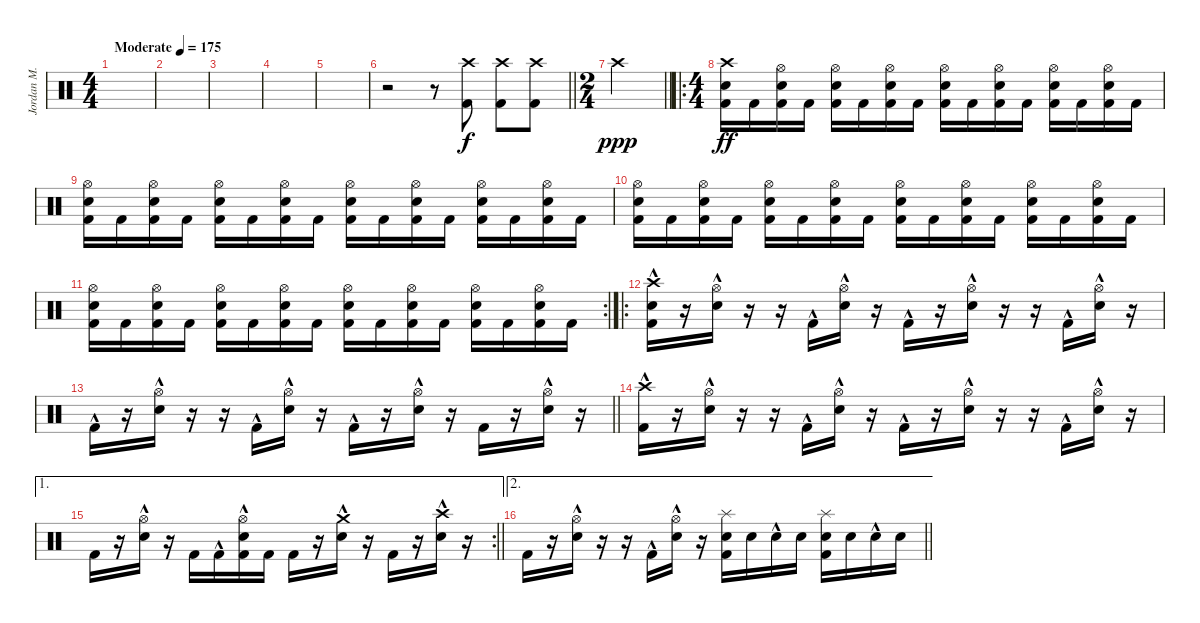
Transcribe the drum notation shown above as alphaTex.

\track ("Jordan M." "Jordan M.") {instrument percussion}
\staff {score}
\articulation defaults
\ts (4 4)
\tempo (175 "Moderate")
\clef neutral
\ks c
|
|
|
|
|
\barLineRight lightlight
r.2 r.8 ("Crash high (hit)" "Kick (hit) 2").8 ("Crash high (hit)" "Kick (hit) 2").8 ("Crash high (hit)" "Kick (hit) 2").8 |
\ts (2 4)
\barLineRight lightlight "Crash high (hit)".2{dy ppp}
|
\ro
\ts (4 4)
("Crash high (hit)" "Electric Snare (hit)" "Kick (hit) 2").16{dy ff} "Kick (hit) 2".16 ("Hi-Hat (open)" "Electric Snare (hit)" "Kick (hit) 2").16 "Kick (hit) 2".16 ("Hi-Hat (open)" "Electric Snare (hit)" "Kick (hit) 2").16 "Kick (hit) 2".16 ("Hi-Hat (open)" "Electric Snare (hit)" "Kick (hit) 2").16 "Kick (hit) 2".16 ("Hi-Hat (open)" "Electric Snare (hit)" "Kick (hit) 2").16 "Kick (hit) 2".16 ("Hi-Hat (open)" "Electric Snare (hit)" "Kick (hit) 2").16 "Kick (hit) 2".16 ("Hi-Hat (open)" "Electric Snare (hit)" "Kick (hit) 2").16 "Kick (hit) 2".16 ("Hi-Hat (open)" "Electric Snare (hit)" "Kick (hit) 2").16 "Kick (hit) 2".16 |
("Hi-Hat (open)" "Electric Snare (hit)" "Kick (hit) 2").16 "Kick (hit) 2".16 ("Hi-Hat (open)" "Electric Snare (hit)" "Kick (hit) 2").16 "Kick (hit) 2".16 ("Hi-Hat (open)" "Electric Snare (hit)" "Kick (hit) 2").16 "Kick (hit) 2".16 ("Hi-Hat (open)" "Electric Snare (hit)" "Kick (hit) 2").16 "Kick (hit) 2".16 ("Hi-Hat (open)" "Electric Snare (hit)" "Kick (hit) 2").16 "Kick (hit) 2".16 ("Hi-Hat (open)" "Electric Snare (hit)" "Kick (hit) 2").16 "Kick (hit) 2".16 ("Hi-Hat (open)" "Electric Snare (hit)" "Kick (hit) 2").16 "Kick (hit) 2".16 ("Hi-Hat (open)" "Electric Snare (hit)" "Kick (hit) 2").16 "Kick (hit) 2".16 |
("Hi-Hat (open)" "Electric Snare (hit)" "Kick (hit) 2").16 "Kick (hit) 2".16 ("Hi-Hat (open)" "Electric Snare (hit)" "Kick (hit) 2").16 "Kick (hit) 2".16 ("Hi-Hat (open)" "Electric Snare (hit)" "Kick (hit) 2").16 "Kick (hit) 2".16 ("Hi-Hat (open)" "Electric Snare (hit)" "Kick (hit) 2").16 "Kick (hit) 2".16 ("Hi-Hat (open)" "Electric Snare (hit)" "Kick (hit) 2").16 "Kick (hit) 2".16 ("Hi-Hat (open)" "Electric Snare (hit)" "Kick (hit) 2").16 "Kick (hit) 2".16 ("Hi-Hat (open)" "Electric Snare (hit)" "Kick (hit) 2").16 "Kick (hit) 2".16 ("Hi-Hat (open)" "Electric Snare (hit)" "Kick (hit) 2").16 "Kick (hit) 2".16 |
\rc 2
("Hi-Hat (open)" "Electric Snare (hit)" "Kick (hit) 2").16 "Kick (hit) 2".16 ("Hi-Hat (open)" "Electric Snare (hit)" "Kick (hit) 2").16 "Kick (hit) 2".16 ("Hi-Hat (open)" "Electric Snare (hit)" "Kick (hit) 2").16 "Kick (hit) 2".16 ("Hi-Hat (open)" "Electric Snare (hit)" "Kick (hit) 2").16 "Kick (hit) 2".16 ("Hi-Hat (open)" "Electric Snare (hit)" "Kick (hit) 2").16 "Kick (hit) 2".16 ("Hi-Hat (open)" "Electric Snare (hit)" "Kick (hit) 2").16 "Kick (hit) 2".16 ("Hi-Hat (open)" "Electric Snare (hit)" "Kick (hit) 2").16 "Kick (hit) 2".16 ("Hi-Hat (open)" "Electric Snare (hit)" "Kick (hit) 2").16 "Kick (hit) 2".16 |
\ro
("Crash high (hit)" "Snare (hit)" "Kick (hit) 2"{hac}).16 r.16 ("Hi-Hat (open)" "Electric Snare (hit)"{hac}).16 r.16 r.16 "Kick (hit) 2"{hac}.16 ("Hi-Hat (open)" "Electric Snare (hit)"{hac}).16 r.16 "Kick (hit) 2"{hac}.16 r.16 ("Hi-Hat (open)" "Electric Snare (hit)"{hac}).16 r.16 r.16 "Kick (hit) 2"{hac}.16 ("Hi-Hat (open)" "Electric Snare (hit)"{hac}).16 r.16 |
\barLineRight lightlight "Kick (hit) 2"{hac}.16
r.16 ("Hi-Hat (open)" "Electric Snare (hit)"{hac}).16 r.16 r.16 "Kick (hit) 2"{hac}.16 ("Hi-Hat (open)" "Electric Snare (hit)"{hac}).16 r.16 "Kick (hit) 2"{hac}.16 r.16 ("Hi-Hat (open)" "Electric Snare (hit)"{hac}).16 r.16 "Kick (hit) 2".16 r.16 ("Hi-Hat (open)" "Electric Snare (hit)"{hac}).16 r.16 |
("Crash high (hit)" "Kick (hit) 2"{hac}).16 r.16 ("Hi-Hat (open)" "Electric Snare (hit)"{hac}).16 r.16 r.16 "Kick (hit) 2"{hac}.16 ("Hi-Hat (open)" "Electric Snare (hit)"{hac}).16 r.16 "Kick (hit) 2"{hac}.16 r.16 ("Hi-Hat (open)" "Electric Snare (hit)"{hac}).16 r.16 r.16 "Kick (hit) 2"{hac}.16 ("Hi-Hat (open)" "Electric Snare (hit)"{hac}).16 r.16 |
\ae 1
\rc 2
\barLineRight lightlight "Kick (hit) 2".16
r.16 ("Hi-Hat (open)" "Electric Snare (hit)"{hac}).16 r.16 "Kick (hit) 2".16 "Kick (hit) 2"{hac}.16 ("Hi-Hat (open)" "Electric Snare (hit)"{hac} "Kick (hit) 2").16 "Kick (hit) 2".16 "Kick (hit) 2".16 r.16 ("Crash medium (hit)" "Electric Snare (hit)"{hac}).16 r.16 "Kick (hit) 2".16 r.16 ("Crash high (hit)" "Electric Snare (hit)"{hac}).16 r.16 |
\ae 2
\barLineRight lightlight "Kick (hit) 2".16
r.16 ("Hi-Hat (open)" "Electric Snare (hit)"{hac}).16 r.16 r.16 "Kick (hit) 2"{hac}.16 ("Hi-Hat (open)" "Electric Snare (hit)"{hac}).16 r.16 ("Splash (hit)" "Electric Snare (hit)" "Kick (hit) 2").16 "Electric Snare (hit)".16 "Electric Snare (hit)"{hac}.16 "Electric Snare (hit)".16 ("Splash (hit)" "Electric Snare (hit)" "Kick (hit) 2").16 "Electric Snare (hit)".16 "Electric Snare (hit)"{hac}.16 "Electric Snare (hit)".16
